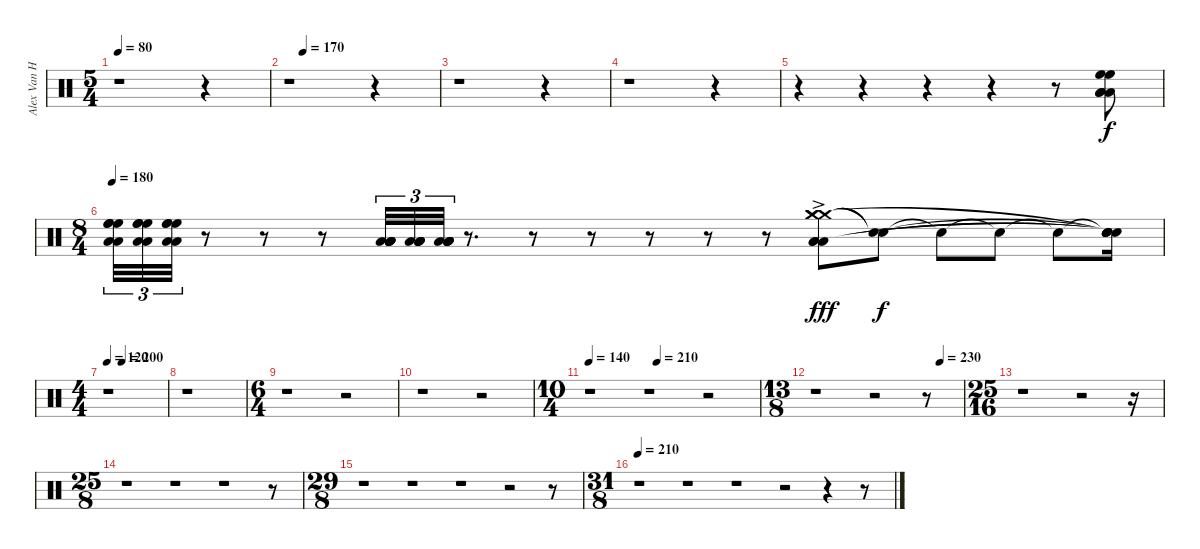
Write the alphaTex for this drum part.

\track ("Alex Van Halen" "Alex Van H") {instrument percussion}
\staff {score}
\articulation defaults
\ts (5 4)
\tempo 80
\clef neutral
\ks c
r.1{dy f} r.4 |
\tempo (170 0.1)
r.1 r.4 |
r.1 r.4 |
r.1 r.4 |
r.4{volume 11} r.4 r.4 r.4 r.8 ("Low Tom (hit)" "Low Tom (hit)" "Low Tom (hit)" "High Floor Tom (hit)" "High Floor Tom (hit)").8 |
\ts (8 4)
\tempo 180
("High Floor Tom (hit)" "High Floor Tom (hit)" "High Floor Tom (hit)" "Low Tom (hit)" "Low Tom (hit)").32{tu (3 2) volume 13} ("High Floor Tom (hit)" "High Floor Tom (hit)" "High Floor Tom (hit)" "Low Tom (hit)" "Low Tom (hit)").32{tu (3 2)} ("High Floor Tom (hit)" "High Floor Tom (hit)" "High Floor Tom (hit)" "Low Tom (hit)" "Low Tom (hit)").32{tu (3 2)} r.8 r.8 r.8 ("Low Tom (hit)" "Low Tom (hit)" "Low Tom (hit)" "Low Tom (hit)" "Low Tom (hit)").32{tu (3 2)} ("Low Tom (hit)" "Low Tom (hit)" "Low Tom (hit)" "Low Tom (hit)" "Low Tom (hit)").32{tu (3 2)} ("Low Tom (hit)" "Low Tom (hit)" "Low Tom (hit)" "Low Tom (hit)" "Low Tom (hit)").32{tu (3 2)} r.8{d} r.8 r.8 r.8 r.8 r.8 ("Crash medium (hit)"{ac} "Crash medium (hit)"{ac} "Crash medium (hit)"{ac} "Low Tom (hit)" "Low Tom (hit)" "Low Tom (hit)").8{dy fff volume 16} ("Snare (hit)"{t} "Snare (hit)"{t}).8{dy f} "Snare (hit)"{t}.8 "Snare (hit)"{t}.8 "Snare (hit)"{t}.8 ("Snare (hit)"{t} "Snare (hit)"{t} "Snare (hit)"{t} "Snare (hit)"{t} "Snare (hit)"{t}).16 |
\ts (4 4)
\tempo 120
\tempo (200 0.25)
r.1 |
r.1 |
\ts (6 4)
r.1 r.2 |
r.1 r.2 |
\ts (10 4)
\tempo 140
\tempo (210 0.4)
r.1 r.1 r.2 |
\ts (13 8)
\tempo (230 0.8461538461538461)
r.1 r.2 r.8 |
\ts (25 16)
r.1 r.2 r.16 |
\ts (25 8)
r.1 r.1 r.1 r.8 |
\ts (29 8)
r.1 r.1 r.1 r.2 r.8 |
\ts (31 8)
\tempo 210
r.1 r.1 r.1 r.2 r.4 r.8
